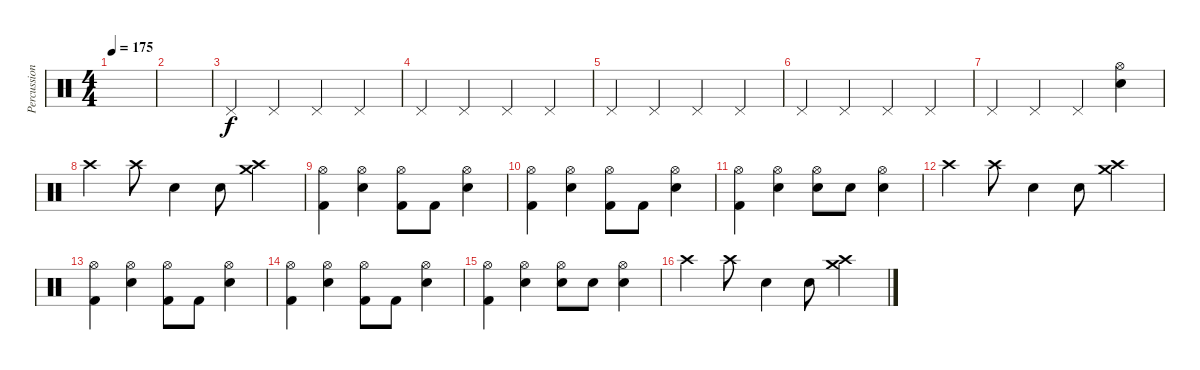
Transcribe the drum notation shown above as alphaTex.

\track ("Percussion" "Percussion") {instrument percussion}
\staff {score}
\articulation defaults
\ts (4 4)
\tempo 175
\clef neutral
\ks c
|
|
"Pedal Hi-Hat (hit)".4 "Pedal Hi-Hat (hit)".4 "Pedal Hi-Hat (hit)".4 "Pedal Hi-Hat (hit)".4 |
"Pedal Hi-Hat (hit)".4 "Pedal Hi-Hat (hit)".4 "Pedal Hi-Hat (hit)".4 "Pedal Hi-Hat (hit)".4 |
"Pedal Hi-Hat (hit)".4 "Pedal Hi-Hat (hit)".4 "Pedal Hi-Hat (hit)".4 "Pedal Hi-Hat (hit)".4 |
"Pedal Hi-Hat (hit)".4 "Pedal Hi-Hat (hit)".4 "Pedal Hi-Hat (hit)".4 "Pedal Hi-Hat (hit)".4 |
"Pedal Hi-Hat (hit)".4 "Pedal Hi-Hat (hit)".4 "Pedal Hi-Hat (hit)".4 ("Hi-Hat (open)" "Snare (hit) 2").4 |
"Crash high (hit)".4 "Crash high (hit)".8 "Snare (hit) 2".4 "Snare (hit) 2".8 ("Crash high (hit)" "Crash medium (hit)").4 |
("Hi-Hat (open)" "Kick (hit) 2").4 ("Hi-Hat (open)" "Snare (hit) 2").4 ("Hi-Hat (open)" "Kick (hit) 2").8 "Kick (hit) 2".8 ("Hi-Hat (open)" "Snare (hit) 2").4 |
("Hi-Hat (open)" "Kick (hit) 2").4 ("Hi-Hat (open)" "Snare (hit) 2").4 ("Hi-Hat (open)" "Kick (hit) 2").8 "Kick (hit) 2".8 ("Hi-Hat (open)" "Snare (hit) 2").4 |
("Hi-Hat (open)" "Kick (hit) 2").4 ("Hi-Hat (open)" "Snare (hit) 2").4 ("Hi-Hat (open)" "Snare (hit) 2").8 "Snare (hit) 2".8 ("Hi-Hat (open)" "Snare (hit) 2").4 |
"Crash high (hit)".4 "Crash high (hit)".8 "Snare (hit) 2".4 "Snare (hit) 2".8 ("Crash high (hit)" "Crash medium (hit)").4 |
("Hi-Hat (open)" "Kick (hit) 2").4 ("Hi-Hat (open)" "Snare (hit) 2").4 ("Hi-Hat (open)" "Kick (hit) 2").8 "Kick (hit) 2".8 ("Hi-Hat (open)" "Snare (hit) 2").4 |
("Hi-Hat (open)" "Kick (hit) 2").4 ("Hi-Hat (open)" "Snare (hit) 2").4 ("Hi-Hat (open)" "Kick (hit) 2").8 "Kick (hit) 2".8 ("Hi-Hat (open)" "Snare (hit) 2").4 |
("Hi-Hat (open)" "Kick (hit) 2").4 ("Hi-Hat (open)" "Snare (hit) 2").4 ("Hi-Hat (open)" "Snare (hit) 2").8 "Snare (hit) 2".8 ("Hi-Hat (open)" "Snare (hit) 2").4 |
"Crash high (hit)".4 "Crash high (hit)".8 "Snare (hit) 2".4 "Snare (hit) 2".8 ("Crash high (hit)" "Crash medium (hit)").4
